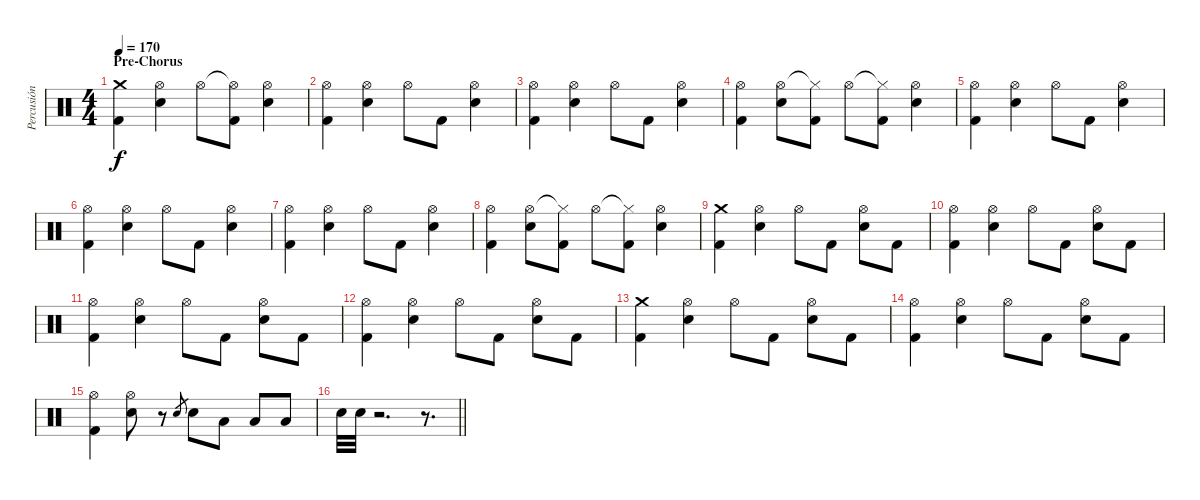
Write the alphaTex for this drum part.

\track ("Percusión" "Percusión") {instrument percussion}
\staff {score}
\articulation defaults
\ts (4 4)
\section ("" "Pre-Chorus")
\tempo 170
\clef neutral
\ks c
("Crash medium (hit)" "Kick (hit) 2").4{dy f} ("Hi-Hat (open)" "Electric Snare (hit)").4 "Hi-Hat (open)".8 ("Hi-Hat (open)"{t} "Kick (hit) 2").8 ("Hi-Hat (open)" "Electric Snare (hit)").4 |
("Hi-Hat (open)" "Kick (hit) 2").4 ("Hi-Hat (open)" "Electric Snare (hit)").4 "Hi-Hat (open)".8 "Kick (hit) 2".8 ("Hi-Hat (open)" "Electric Snare (hit)").4 |
("Hi-Hat (open)" "Kick (hit) 2").4 ("Hi-Hat (open)" "Electric Snare (hit)").4 "Hi-Hat (open)".8 "Kick (hit) 2".8 ("Hi-Hat (open)" "Electric Snare (hit)").4 |
("Hi-Hat (open)" "Kick (hit) 2").4 ("Hi-Hat (open)" "Electric Snare (hit)").8 ("Hi-Hat (closed)"{t} "Kick (hit) 2").8 "Hi-Hat (open)".8 ("Hi-Hat (closed)"{t} "Kick (hit) 2").8 ("Hi-Hat (open)" "Electric Snare (hit)").4 |
("Hi-Hat (open)" "Kick (hit) 2").4 ("Hi-Hat (open)" "Electric Snare (hit)").4 "Hi-Hat (open)".8 "Kick (hit) 2".8 ("Hi-Hat (open)" "Electric Snare (hit)").4 |
("Hi-Hat (open)" "Kick (hit) 2").4 ("Hi-Hat (open)" "Electric Snare (hit)").4 "Hi-Hat (open)".8 "Kick (hit) 2".8 ("Hi-Hat (open)" "Electric Snare (hit)").4 |
("Hi-Hat (open)" "Kick (hit) 2").4 ("Hi-Hat (open)" "Electric Snare (hit)").4 "Hi-Hat (open)".8 "Kick (hit) 2".8 ("Hi-Hat (open)" "Electric Snare (hit)").4 |
("Hi-Hat (open)" "Kick (hit) 2").4 ("Hi-Hat (open)" "Electric Snare (hit)").8 ("Hi-Hat (closed)"{t} "Kick (hit) 2").8 "Hi-Hat (open)".8 ("Hi-Hat (closed)"{t} "Kick (hit) 2").8 ("Hi-Hat (open)" "Electric Snare (hit)").4 |
("Crash medium (hit)" "Kick (hit) 2").4 ("Hi-Hat (open)" "Electric Snare (hit)").4 "Hi-Hat (open)".8 "Kick (hit) 2".8 ("Hi-Hat (open)" "Electric Snare (hit)").8 "Kick (hit) 2".8 |
("Hi-Hat (open)" "Kick (hit) 2").4 ("Hi-Hat (open)" "Electric Snare (hit)").4 "Hi-Hat (open)".8 "Kick (hit) 2".8 ("Hi-Hat (open)" "Electric Snare (hit)").8 "Kick (hit) 2".8 |
("Hi-Hat (open)" "Kick (hit) 2").4 ("Hi-Hat (open)" "Electric Snare (hit)").4 "Hi-Hat (open)".8 "Kick (hit) 2".8 ("Hi-Hat (open)" "Electric Snare (hit)").8 "Kick (hit) 2".8 |
("Hi-Hat (open)" "Kick (hit) 2").4 ("Hi-Hat (open)" "Electric Snare (hit)").4 "Hi-Hat (open)".8 "Kick (hit) 2".8 ("Hi-Hat (open)" "Electric Snare (hit)").8 "Kick (hit) 2".8 |
("Crash medium (hit)" "Kick (hit) 2").4 ("Hi-Hat (open)" "Electric Snare (hit)").4 "Hi-Hat (open)".8 "Kick (hit) 2".8 ("Hi-Hat (open)" "Electric Snare (hit)").8 "Kick (hit) 2".8 |
("Hi-Hat (open)" "Kick (hit) 2").4 ("Hi-Hat (open)" "Electric Snare (hit)").4 "Hi-Hat (open)".8 "Kick (hit) 2".8 ("Hi-Hat (open)" "Electric Snare (hit)").8 "Kick (hit) 2".8 |
("Hi-Hat (open)" "Kick (hit) 2").4 ("Hi-Hat (open)" "Electric Snare (hit)").8 r.8 "Electric Snare (hit)".8{gr} "Electric Snare (hit)".8 "Low Floor Tom (hit)".8 "Low Floor Tom (hit)".8 "Low Tom (hit)".8 |
\barLineRight lightlight "Electric Snare (hit)".32 "Electric Snare (hit)".32
r.2{d} r.8{d}
